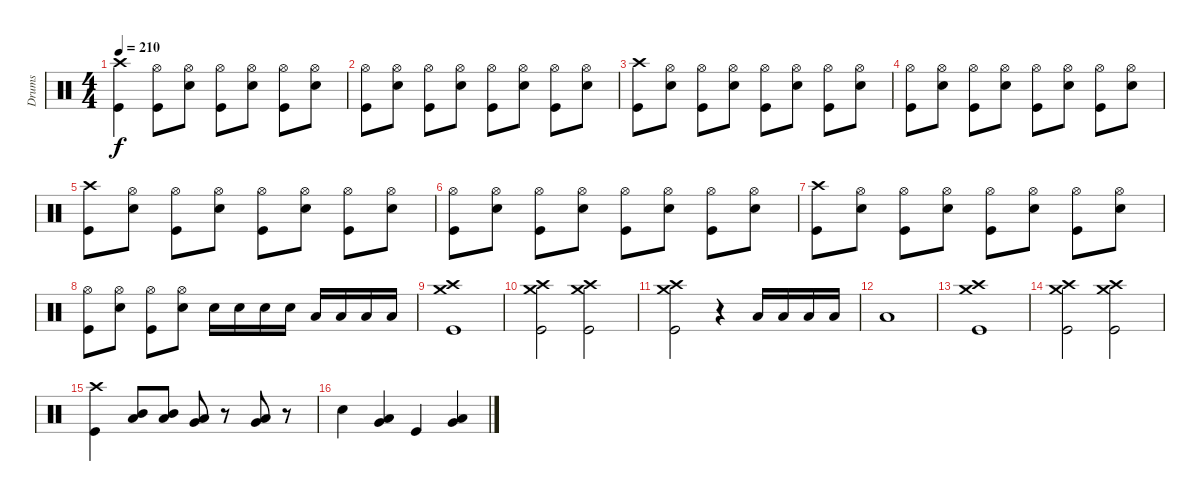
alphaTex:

\track ("Drums" "Drums") {instrument percussion}
\staff {score}
\articulation defaults
\ts (4 4)
\tempo 210
\clef neutral
\ks c
("Crash high (hit)" "Kick (hit)").4{dy f} ("Hi-Hat (open)" "Kick (hit)").8 ("Hi-Hat (open)" "Snare (hit) 2").8 ("Hi-Hat (open)" "Kick (hit)").8 ("Hi-Hat (open)" "Snare (hit) 2").8 ("Hi-Hat (open)" "Kick (hit)").8 ("Hi-Hat (open)" "Snare (hit) 2").8 |
("Hi-Hat (open)" "Kick (hit)").8 ("Hi-Hat (open)" "Snare (hit) 2").8 ("Hi-Hat (open)" "Kick (hit)").8 ("Hi-Hat (open)" "Snare (hit) 2").8 ("Hi-Hat (open)" "Kick (hit)").8 ("Hi-Hat (open)" "Snare (hit) 2").8 ("Hi-Hat (open)" "Kick (hit)").8 ("Hi-Hat (open)" "Snare (hit) 2").8 |
("Crash high (hit)" "Kick (hit)").8 ("Hi-Hat (open)" "Snare (hit) 2").8 ("Hi-Hat (open)" "Kick (hit)").8 ("Hi-Hat (open)" "Snare (hit) 2").8 ("Hi-Hat (open)" "Kick (hit)").8 ("Hi-Hat (open)" "Snare (hit) 2").8 ("Hi-Hat (open)" "Kick (hit)").8 ("Hi-Hat (open)" "Snare (hit) 2").8 |
("Hi-Hat (open)" "Kick (hit)").8 ("Hi-Hat (open)" "Snare (hit) 2").8 ("Hi-Hat (open)" "Kick (hit)").8 ("Hi-Hat (open)" "Snare (hit) 2").8 ("Hi-Hat (open)" "Kick (hit)").8 ("Hi-Hat (open)" "Snare (hit) 2").8 ("Hi-Hat (open)" "Kick (hit)").8 ("Hi-Hat (open)" "Snare (hit) 2").8 |
("Crash high (hit)" "Kick (hit)").8 ("Hi-Hat (open)" "Snare (hit) 2").8 ("Hi-Hat (open)" "Kick (hit)").8 ("Hi-Hat (open)" "Snare (hit) 2").8 ("Hi-Hat (open)" "Kick (hit)").8 ("Hi-Hat (open)" "Snare (hit) 2").8 ("Hi-Hat (open)" "Kick (hit)").8 ("Hi-Hat (open)" "Snare (hit) 2").8 |
("Hi-Hat (open)" "Kick (hit)").8 ("Hi-Hat (open)" "Snare (hit) 2").8 ("Hi-Hat (open)" "Kick (hit)").8 ("Hi-Hat (open)" "Snare (hit) 2").8 ("Hi-Hat (open)" "Kick (hit)").8 ("Hi-Hat (open)" "Snare (hit) 2").8 ("Hi-Hat (open)" "Kick (hit)").8 ("Hi-Hat (open)" "Snare (hit) 2").8 |
("Crash high (hit)" "Kick (hit)").8 ("Hi-Hat (open)" "Snare (hit) 2").8 ("Hi-Hat (open)" "Kick (hit)").8 ("Hi-Hat (open)" "Snare (hit) 2").8 ("Hi-Hat (open)" "Kick (hit)").8 ("Hi-Hat (open)" "Snare (hit) 2").8 ("Hi-Hat (open)" "Kick (hit)").8 ("Hi-Hat (open)" "Snare (hit) 2").8 |
("Hi-Hat (open)" "Kick (hit)").8 ("Hi-Hat (open)" "Snare (hit) 2").8 ("Hi-Hat (open)" "Kick (hit)").8 ("Hi-Hat (open)" "Snare (hit) 2").8 "Snare (hit) 2".16 "Snare (hit) 2".16 "Snare (hit) 2".16 "Snare (hit) 2".16 "Low Tom (hit)".16 "Low Tom (hit)".16 "Low Tom (hit)".16 "Low Tom (hit)".16 |
("Crash high (hit)" "Crash medium (hit)" "Kick (hit)").1 |
("Crash high (hit)" "Crash medium (hit)" "Kick (hit)").2 ("Crash high (hit)" "Crash medium (hit)" "Kick (hit)").2 |
("Crash high (hit)" "Crash medium (hit)" "Kick (hit)").2 r.4 "Low Floor Tom (hit)".16 "Low Floor Tom (hit)".16 "Low Floor Tom (hit)".16 "Low Floor Tom (hit)".16 |
"Low Floor Tom (hit)".1 |
("Crash high (hit)" "Crash medium (hit)" "Kick (hit)").1 |
("Crash high (hit)" "Crash medium (hit)" "Kick (hit)").2 ("Crash high (hit)" "Crash medium (hit)" "Kick (hit)").2 |
("Crash high (hit)" "Kick (hit)").4 ("Mid Tom (hit)" "Low Tom (hit)").8 ("Mid Tom (hit)" "Low Tom (hit)").8 ("Low Tom (hit)" "Very Low Tom (hit)").8 r.8 ("Very Low Tom (hit)" "Low Floor Tom (hit)").8 r.8 |
"Snare (hit) 2".4 ("Low Tom (hit)" "Very Low Tom (hit)").4 "Kick (hit)".4 ("Low Tom (hit)" "Very Low Tom (hit)").4
